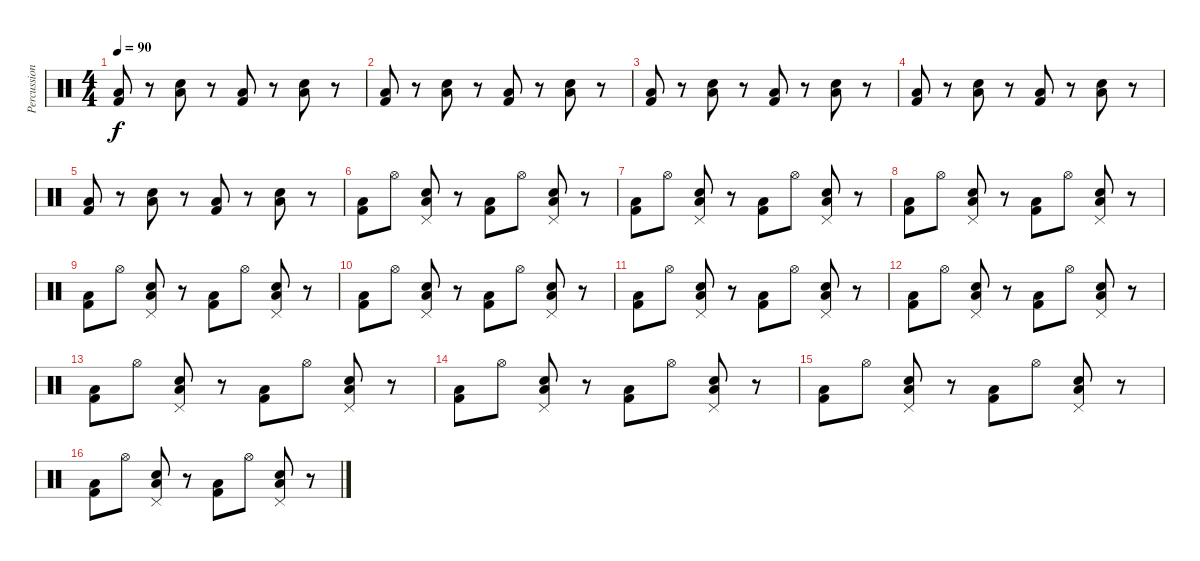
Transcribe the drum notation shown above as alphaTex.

\track ("Percussion" "Percussion") {instrument percussion}
\staff {score}
\articulation defaults
\ts (4 4)
\tempo 90
\clef neutral
\ks c
("Low Floor Tom (hit)" "Kick (hit) 2").8{dy f} r.8 ("Low Floor Tom (hit)" "Snare (hit) 2").8 r.8 ("Low Floor Tom (hit)" "Kick (hit) 2").8 r.8 ("Low Floor Tom (hit)" "Snare (hit) 2").8 r.8 |
("Low Floor Tom (hit)" "Kick (hit) 2").8 r.8 ("Low Floor Tom (hit)" "Snare (hit) 2").8 r.8 ("Low Floor Tom (hit)" "Kick (hit) 2").8 r.8 ("Low Floor Tom (hit)" "Snare (hit) 2").8 r.8 |
("Low Floor Tom (hit)" "Kick (hit) 2").8 r.8 ("Low Floor Tom (hit)" "Snare (hit) 2").8 r.8 ("Low Floor Tom (hit)" "Kick (hit) 2").8 r.8 ("Low Floor Tom (hit)" "Snare (hit) 2").8 r.8 |
("Low Floor Tom (hit)" "Kick (hit) 2").8 r.8 ("Low Floor Tom (hit)" "Snare (hit) 2").8 r.8 ("Low Floor Tom (hit)" "Kick (hit) 2").8 r.8 ("Low Floor Tom (hit)" "Snare (hit) 2").8 r.8 |
("Low Floor Tom (hit)" "Kick (hit) 2").8 r.8 ("Low Floor Tom (hit)" "Snare (hit) 2").8 r.8 ("Low Floor Tom (hit)" "Kick (hit) 2").8 r.8 ("Low Floor Tom (hit)" "Snare (hit) 2").8 r.8 |
("Low Floor Tom (hit)" "Kick (hit) 2").8 "Hi-Hat (open)".8 ("Pedal Hi-Hat (hit)" "Low Floor Tom (hit)" "Snare (hit) 2").8 r.8 ("Low Floor Tom (hit)" "Kick (hit) 2").8 "Hi-Hat (open)".8 ("Pedal Hi-Hat (hit)" "Low Floor Tom (hit)" "Snare (hit) 2").8 r.8 |
("Low Floor Tom (hit)" "Kick (hit) 2").8 "Hi-Hat (open)".8 ("Pedal Hi-Hat (hit)" "Low Floor Tom (hit)" "Snare (hit) 2").8 r.8 ("Low Floor Tom (hit)" "Kick (hit) 2").8 "Hi-Hat (open)".8 ("Pedal Hi-Hat (hit)" "Low Floor Tom (hit)" "Snare (hit) 2").8 r.8 |
("Low Floor Tom (hit)" "Kick (hit) 2").8 "Hi-Hat (open)".8 ("Pedal Hi-Hat (hit)" "Low Floor Tom (hit)" "Snare (hit) 2").8 r.8 ("Low Floor Tom (hit)" "Kick (hit) 2").8 "Hi-Hat (open)".8 ("Pedal Hi-Hat (hit)" "Low Floor Tom (hit)" "Snare (hit) 2").8 r.8 |
("Low Floor Tom (hit)" "Kick (hit) 2").8 "Hi-Hat (open)".8 ("Pedal Hi-Hat (hit)" "Low Floor Tom (hit)" "Snare (hit) 2").8 r.8 ("Low Floor Tom (hit)" "Kick (hit) 2").8 "Hi-Hat (open)".8 ("Pedal Hi-Hat (hit)" "Low Floor Tom (hit)" "Snare (hit) 2").8 r.8 |
("Low Floor Tom (hit)" "Kick (hit) 2").8 "Hi-Hat (open)".8 ("Pedal Hi-Hat (hit)" "Low Floor Tom (hit)" "Snare (hit) 2").8 r.8 ("Low Floor Tom (hit)" "Kick (hit) 2").8 "Hi-Hat (open)".8 ("Pedal Hi-Hat (hit)" "Low Floor Tom (hit)" "Snare (hit) 2").8 r.8 |
("Low Floor Tom (hit)" "Kick (hit) 2").8 "Hi-Hat (open)".8 ("Pedal Hi-Hat (hit)" "Low Floor Tom (hit)" "Snare (hit) 2").8 r.8 ("Low Floor Tom (hit)" "Kick (hit) 2").8 "Hi-Hat (open)".8 ("Pedal Hi-Hat (hit)" "Low Floor Tom (hit)" "Snare (hit) 2").8 r.8 |
("Low Floor Tom (hit)" "Kick (hit) 2").8 "Hi-Hat (open)".8 ("Pedal Hi-Hat (hit)" "Low Floor Tom (hit)" "Snare (hit) 2").8 r.8 ("Low Floor Tom (hit)" "Kick (hit) 2").8 "Hi-Hat (open)".8 ("Pedal Hi-Hat (hit)" "Low Floor Tom (hit)" "Snare (hit) 2").8 r.8 |
("Low Floor Tom (hit)" "Kick (hit) 2").8 "Hi-Hat (open)".8 ("Pedal Hi-Hat (hit)" "Low Floor Tom (hit)" "Snare (hit) 2").8 r.8 ("Low Floor Tom (hit)" "Kick (hit) 2").8 "Hi-Hat (open)".8 ("Pedal Hi-Hat (hit)" "Low Floor Tom (hit)" "Snare (hit) 2").8 r.8 |
("Low Floor Tom (hit)" "Kick (hit) 2").8 "Hi-Hat (open)".8 ("Pedal Hi-Hat (hit)" "Low Floor Tom (hit)" "Snare (hit) 2").8 r.8 ("Low Floor Tom (hit)" "Kick (hit) 2").8 "Hi-Hat (open)".8 ("Pedal Hi-Hat (hit)" "Low Floor Tom (hit)" "Snare (hit) 2").8 r.8 |
("Low Floor Tom (hit)" "Kick (hit) 2").8 "Hi-Hat (open)".8 ("Pedal Hi-Hat (hit)" "Low Floor Tom (hit)" "Snare (hit) 2").8 r.8 ("Low Floor Tom (hit)" "Kick (hit) 2").8 "Hi-Hat (open)".8 ("Pedal Hi-Hat (hit)" "Low Floor Tom (hit)" "Snare (hit) 2").8 r.8 |
("Low Floor Tom (hit)" "Kick (hit) 2").8 "Hi-Hat (open)".8 ("Pedal Hi-Hat (hit)" "Low Floor Tom (hit)" "Snare (hit) 2").8 r.8 ("Low Floor Tom (hit)" "Kick (hit) 2").8 "Hi-Hat (open)".8 ("Pedal Hi-Hat (hit)" "Low Floor Tom (hit)" "Snare (hit) 2").8 r.8
